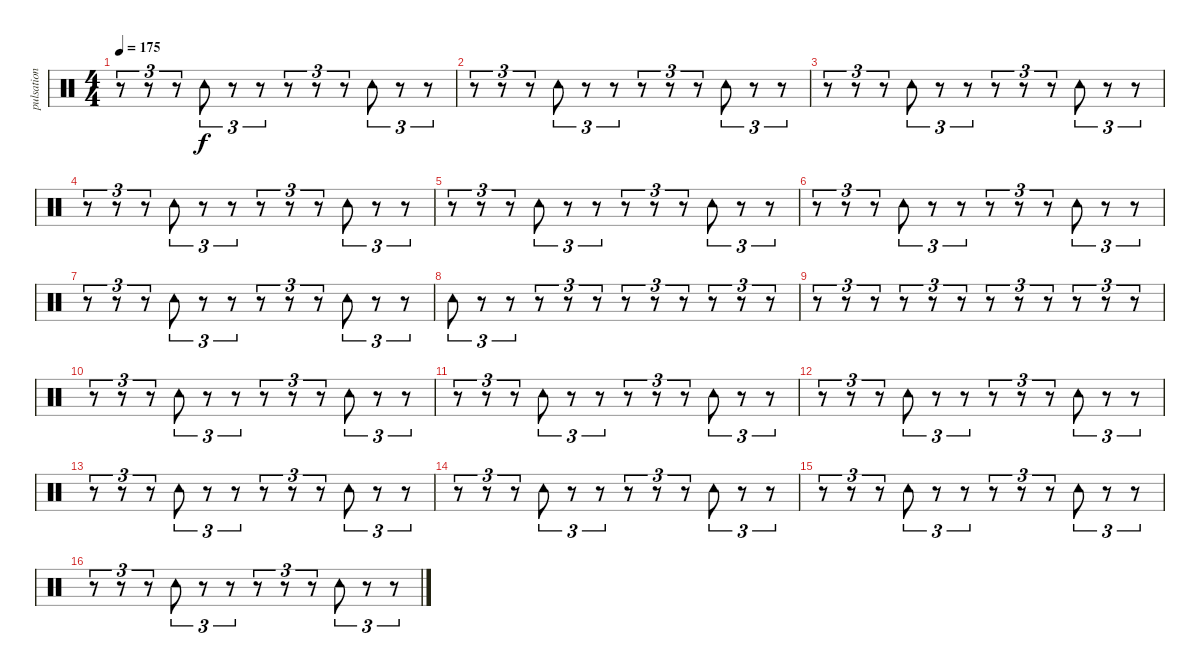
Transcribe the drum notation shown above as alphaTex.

\track ("pulsation" "pulsation") {instrument percussion}
\staff {score}
\articulation defaults
\ts (4 4)
\tempo 175
\clef neutral
\ks c
r.8{tu (3 2) dy f} r.8{tu (3 2)} r.8{tu (3 2)} "Tambourine (hit)".8{tu (3 2)} r.8{tu (3 2)} r.8{tu (3 2)} r.8{tu (3 2)} r.8{tu (3 2)} r.8{tu (3 2)} "Tambourine (hit)".8{tu (3 2)} r.8{tu (3 2)} r.8{tu (3 2)} |
r.8{tu (3 2)} r.8{tu (3 2)} r.8{tu (3 2)} "Tambourine (hit)".8{tu (3 2)} r.8{tu (3 2)} r.8{tu (3 2)} r.8{tu (3 2)} r.8{tu (3 2)} r.8{tu (3 2)} "Tambourine (hit)".8{tu (3 2)} r.8{tu (3 2)} r.8{tu (3 2)} |
r.8{tu (3 2)} r.8{tu (3 2)} r.8{tu (3 2)} "Tambourine (hit)".8{tu (3 2)} r.8{tu (3 2)} r.8{tu (3 2)} r.8{tu (3 2)} r.8{tu (3 2)} r.8{tu (3 2)} "Tambourine (hit)".8{tu (3 2)} r.8{tu (3 2)} r.8{tu (3 2)} |
r.8{tu (3 2)} r.8{tu (3 2)} r.8{tu (3 2)} "Tambourine (hit)".8{tu (3 2)} r.8{tu (3 2)} r.8{tu (3 2)} r.8{tu (3 2)} r.8{tu (3 2)} r.8{tu (3 2)} "Tambourine (hit)".8{tu (3 2)} r.8{tu (3 2)} r.8{tu (3 2)} |
r.8{tu (3 2)} r.8{tu (3 2)} r.8{tu (3 2)} "Tambourine (hit)".8{tu (3 2)} r.8{tu (3 2)} r.8{tu (3 2)} r.8{tu (3 2)} r.8{tu (3 2)} r.8{tu (3 2)} "Tambourine (hit)".8{tu (3 2)} r.8{tu (3 2)} r.8{tu (3 2)} |
r.8{tu (3 2)} r.8{tu (3 2)} r.8{tu (3 2)} "Tambourine (hit)".8{tu (3 2)} r.8{tu (3 2)} r.8{tu (3 2)} r.8{tu (3 2)} r.8{tu (3 2)} r.8{tu (3 2)} "Tambourine (hit)".8{tu (3 2)} r.8{tu (3 2)} r.8{tu (3 2)} |
r.8{tu (3 2)} r.8{tu (3 2)} r.8{tu (3 2)} "Tambourine (hit)".8{tu (3 2)} r.8{tu (3 2)} r.8{tu (3 2)} r.8{tu (3 2)} r.8{tu (3 2)} r.8{tu (3 2)} "Tambourine (hit)".8{tu (3 2)} r.8{tu (3 2)} r.8{tu (3 2)} |
"Tambourine (hit)".8{tu (3 2)} r.8{tu (3 2)} r.8{tu (3 2)} r.8{tu (3 2)} r.8{tu (3 2)} r.8{tu (3 2)} r.8{tu (3 2)} r.8{tu (3 2)} r.8{tu (3 2)} r.8{tu (3 2)} r.8{tu (3 2)} r.8{tu (3 2)} |
r.8{tu (3 2)} r.8{tu (3 2)} r.8{tu (3 2)} r.8{tu (3 2)} r.8{tu (3 2)} r.8{tu (3 2)} r.8{tu (3 2)} r.8{tu (3 2)} r.8{tu (3 2)} r.8{tu (3 2)} r.8{tu (3 2)} r.8{tu (3 2)} |
r.8{tu (3 2)} r.8{tu (3 2)} r.8{tu (3 2)} "Tambourine (hit)".8{tu (3 2)} r.8{tu (3 2)} r.8{tu (3 2)} r.8{tu (3 2)} r.8{tu (3 2)} r.8{tu (3 2)} "Tambourine (hit)".8{tu (3 2)} r.8{tu (3 2)} r.8{tu (3 2)} |
r.8{tu (3 2)} r.8{tu (3 2)} r.8{tu (3 2)} "Tambourine (hit)".8{tu (3 2)} r.8{tu (3 2)} r.8{tu (3 2)} r.8{tu (3 2)} r.8{tu (3 2)} r.8{tu (3 2)} "Tambourine (hit)".8{tu (3 2)} r.8{tu (3 2)} r.8{tu (3 2)} |
r.8{tu (3 2)} r.8{tu (3 2)} r.8{tu (3 2)} "Tambourine (hit)".8{tu (3 2)} r.8{tu (3 2)} r.8{tu (3 2)} r.8{tu (3 2)} r.8{tu (3 2)} r.8{tu (3 2)} "Tambourine (hit)".8{tu (3 2)} r.8{tu (3 2)} r.8{tu (3 2)} |
r.8{tu (3 2)} r.8{tu (3 2)} r.8{tu (3 2)} "Tambourine (hit)".8{tu (3 2)} r.8{tu (3 2)} r.8{tu (3 2)} r.8{tu (3 2)} r.8{tu (3 2)} r.8{tu (3 2)} "Tambourine (hit)".8{tu (3 2)} r.8{tu (3 2)} r.8{tu (3 2)} |
r.8{tu (3 2)} r.8{tu (3 2)} r.8{tu (3 2)} "Tambourine (hit)".8{tu (3 2)} r.8{tu (3 2)} r.8{tu (3 2)} r.8{tu (3 2)} r.8{tu (3 2)} r.8{tu (3 2)} "Tambourine (hit)".8{tu (3 2)} r.8{tu (3 2)} r.8{tu (3 2)} |
r.8{tu (3 2)} r.8{tu (3 2)} r.8{tu (3 2)} "Tambourine (hit)".8{tu (3 2)} r.8{tu (3 2)} r.8{tu (3 2)} r.8{tu (3 2)} r.8{tu (3 2)} r.8{tu (3 2)} "Tambourine (hit)".8{tu (3 2)} r.8{tu (3 2)} r.8{tu (3 2)} |
r.8{tu (3 2)} r.8{tu (3 2)} r.8{tu (3 2)} "Tambourine (hit)".8{tu (3 2)} r.8{tu (3 2)} r.8{tu (3 2)} r.8{tu (3 2)} r.8{tu (3 2)} r.8{tu (3 2)} "Tambourine (hit)".8{tu (3 2)} r.8{tu (3 2)} r.8{tu (3 2)}
